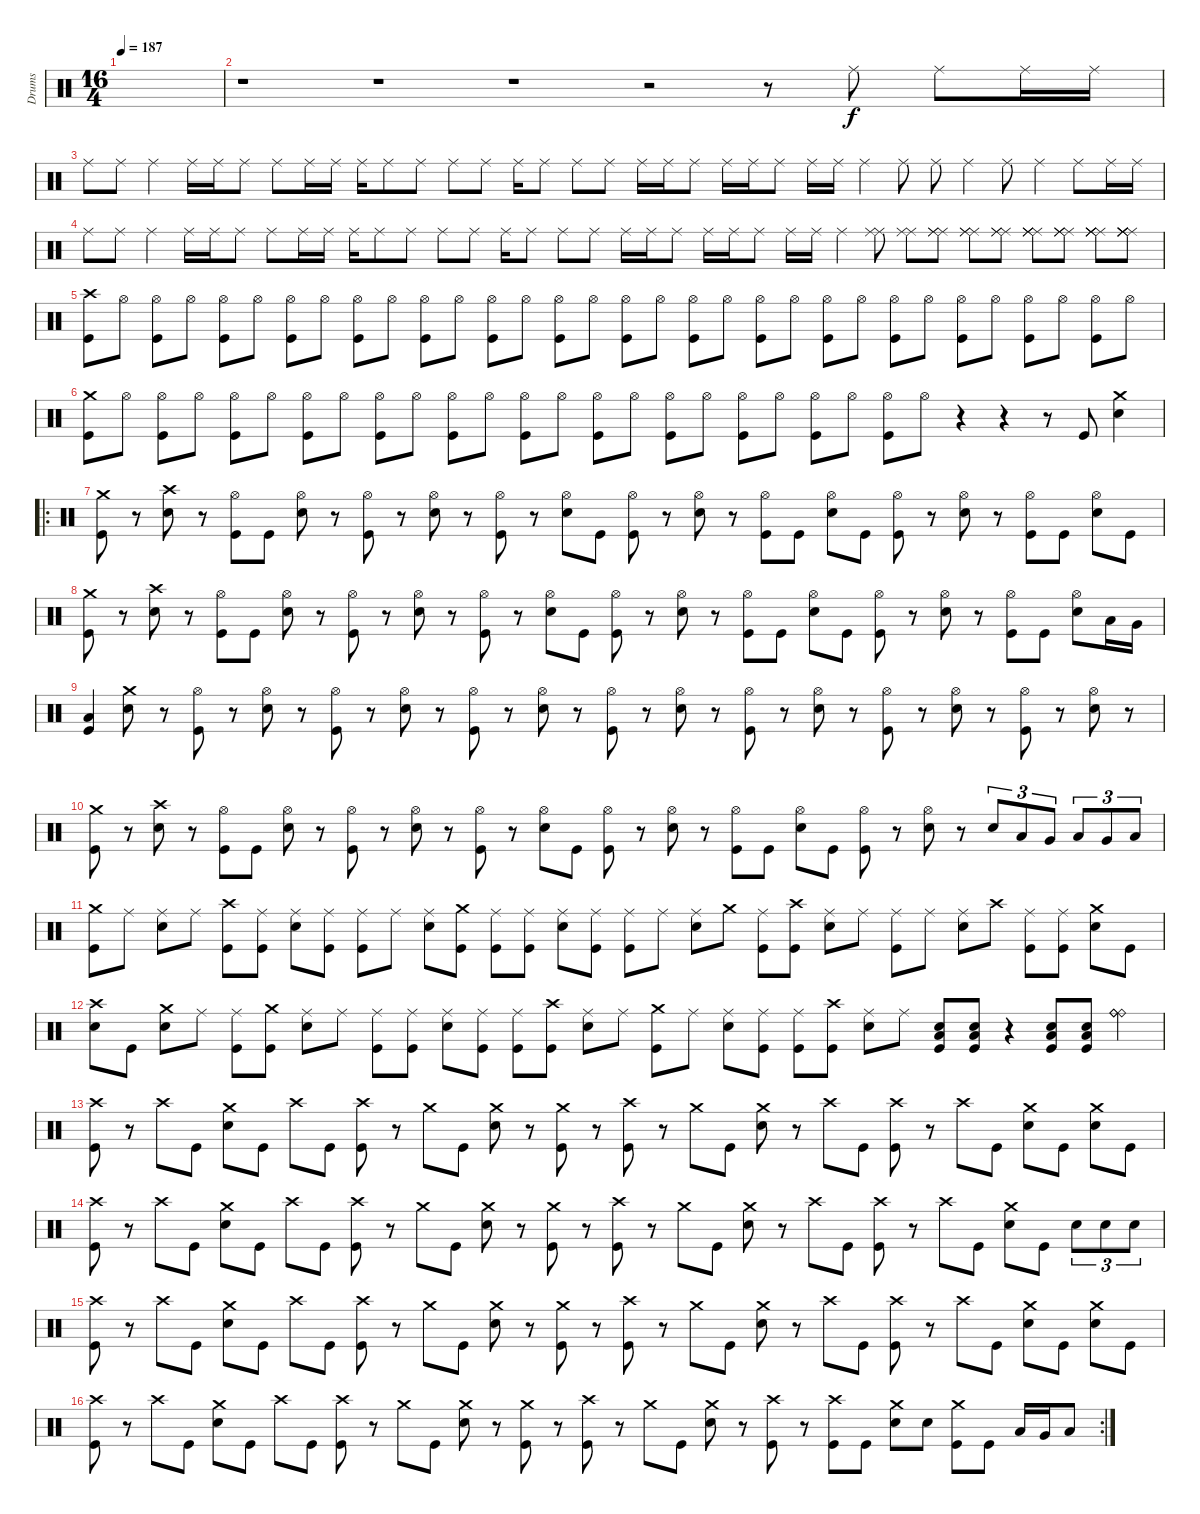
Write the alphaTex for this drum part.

\track ("Drums" "Drums") {instrument percussion}
\staff {score}
\articulation defaults
\ts (16 4)
\tempo 187
\clef neutral
\ks c
|
r.1 r.1 r.1 r.2 r.8 "Ride (middle)".8 "Ride (middle)".8 "Ride (middle)".16 "Ride (middle)".16 |
"Ride (middle)".8 "Ride (middle)".8 "Ride (middle)".4 "Ride (middle)".16 "Ride (middle)".16 "Ride (middle)".8 "Ride (middle)".8 "Ride (middle)".16 "Ride (middle)".16 "Ride (middle)".16 "Ride (middle)".8 "Ride (middle)".8 "Ride (middle)".8 "Ride (middle)".8 "Ride (middle)".16 "Ride (middle)".8 "Ride (middle)".8 "Ride (middle)".8 "Ride (middle)".16 "Ride (middle)".16 "Ride (middle)".8 "Ride (middle)".16 "Ride (middle)".16 "Ride (middle)".8 "Ride (middle)".16 "Ride (middle)".16 "Ride (middle)".4 "Ride (middle)".8 "Ride (middle)".8 "Ride (middle)".4 "Ride (middle)".8 "Ride (middle)".4 "Ride (middle)".8 "Ride (middle)".16 "Ride (middle)".16 |
"Ride (middle)".8 "Ride (middle)".8 "Ride (middle)".4 "Ride (middle)".16 "Ride (middle)".16 "Ride (middle)".8 "Ride (middle)".8 "Ride (middle)".16 "Ride (middle)".16 "Ride (middle)".16 "Ride (middle)".8 "Ride (middle)".8 "Ride (middle)".8 "Ride (middle)".8 "Ride (middle)".16 "Ride (middle)".8 "Ride (middle)".8 "Ride (middle)".8 "Ride (middle)".16 "Ride (middle)".16 "Ride (middle)".8 "Ride (middle)".16 "Ride (middle)".16 "Ride (middle)".8 "Ride (middle)".16 "Ride (middle)".16 "Ride (middle)".4 ("Ride (middle)" "Ride (middle)").8 ("Ride (middle)" "Ride (middle)").8 ("Ride (middle)" "Ride (middle)" "Ride (middle)").8 ("Ride (middle)" "Ride (middle)" "Ride (middle)").8 ("Ride (middle)" "Ride (middle)" "Ride (middle)").8 ("Ride (middle)" "Ride (middle)" "Ride (middle)" "Ride (middle)").8 ("Ride (middle)" "Ride (middle)" "Ride (middle)" "Ride (middle)").8 ("Ride (middle)" "Ride (middle)" "Ride (middle)" "Ride (middle)" "Ride (middle)").8 ("Ride (middle)" "Ride (middle)" "Ride (middle)" "Ride (middle)" "Ride (middle)" "Ride (middle)").8 |
("Crash high (hit)" "Kick (hit)").8 "Hi-Hat (open)".8 ("Hi-Hat (open)" "Kick (hit)").8 "Hi-Hat (open)".8 ("Hi-Hat (open)" "Kick (hit)").8 "Hi-Hat (open)".8 ("Hi-Hat (open)" "Kick (hit)").8 "Hi-Hat (open)".8 ("Hi-Hat (open)" "Kick (hit)").8 "Hi-Hat (open)".8 ("Hi-Hat (open)" "Kick (hit)").8 "Hi-Hat (open)".8 ("Hi-Hat (open)" "Kick (hit)").8 "Hi-Hat (open)".8 ("Hi-Hat (open)" "Kick (hit)").8 "Hi-Hat (open)".8 ("Hi-Hat (open)" "Kick (hit)").8 "Hi-Hat (open)".8 ("Hi-Hat (open)" "Kick (hit)").8 "Hi-Hat (open)".8 ("Hi-Hat (open)" "Kick (hit)").8 "Hi-Hat (open)".8 ("Hi-Hat (open)" "Kick (hit)").8 "Hi-Hat (open)".8 ("Hi-Hat (open)" "Kick (hit)").8 "Hi-Hat (open)".8 ("Hi-Hat (open)" "Kick (hit)").8 "Hi-Hat (open)".8 ("Hi-Hat (open)" "Kick (hit)").8 "Hi-Hat (open)".8 ("Hi-Hat (open)" "Kick (hit)").8 "Hi-Hat (open)".8 |
("Crash medium (hit)" "Kick (hit)").8 "Hi-Hat (open)".8 ("Hi-Hat (open)" "Kick (hit)").8 "Hi-Hat (open)".8 ("Hi-Hat (open)" "Kick (hit)").8 "Hi-Hat (open)".8 ("Hi-Hat (open)" "Kick (hit)").8 "Hi-Hat (open)".8 ("Hi-Hat (open)" "Kick (hit)").8 "Hi-Hat (open)".8 ("Hi-Hat (open)" "Kick (hit)").8 "Hi-Hat (open)".8 ("Hi-Hat (open)" "Kick (hit)").8 "Hi-Hat (open)".8 ("Hi-Hat (open)" "Kick (hit)").8 "Hi-Hat (open)".8 ("Hi-Hat (open)" "Kick (hit)").8 "Hi-Hat (open)".8 ("Hi-Hat (open)" "Kick (hit)").8 "Hi-Hat (open)".8 ("Hi-Hat (open)" "Kick (hit)").8 "Hi-Hat (open)".8 ("Hi-Hat (open)" "Kick (hit)").8 "Hi-Hat (open)".8 r.4 r.4 r.8 "Kick (hit)".8 ("Electric Snare (hit)" "Crash medium (hit)").4 |
\ro
("Crash medium (hit)" "Kick (hit)").8 r.8 ("Crash high (hit)" "Electric Snare (hit)").8 r.8 ("Hi-Hat (open)" "Kick (hit)").8 "Kick (hit)".8 ("Hi-Hat (open)" "Electric Snare (hit)").8 r.8 ("Hi-Hat (open)" "Kick (hit)").8 r.8 ("Hi-Hat (open)" "Electric Snare (hit)").8 r.8 ("Hi-Hat (open)" "Kick (hit)").8 r.8 ("Hi-Hat (open)" "Electric Snare (hit)").8 "Kick (hit)".8 ("Hi-Hat (open)" "Kick (hit)").8 r.8 ("Hi-Hat (open)" "Electric Snare (hit)").8 r.8 ("Hi-Hat (open)" "Kick (hit)").8 "Kick (hit)".8 ("Hi-Hat (open)" "Electric Snare (hit)").8 "Kick (hit)".8 ("Hi-Hat (open)" "Kick (hit)").8 r.8 ("Hi-Hat (open)" "Electric Snare (hit)").8 r.8 ("Hi-Hat (open)" "Kick (hit)").8 "Kick (hit)".8 ("Hi-Hat (open)" "Electric Snare (hit)").8 "Kick (hit)".8 |
("Crash medium (hit)" "Kick (hit)").8 r.8 ("Crash high (hit)" "Electric Snare (hit)").8 r.8 ("Hi-Hat (open)" "Kick (hit)").8 "Kick (hit)".8 ("Hi-Hat (open)" "Electric Snare (hit)").8 r.8 ("Hi-Hat (open)" "Kick (hit)").8 r.8 ("Hi-Hat (open)" "Electric Snare (hit)").8 r.8 ("Hi-Hat (open)" "Kick (hit)").8 r.8 ("Hi-Hat (open)" "Electric Snare (hit)").8 "Kick (hit)".8 ("Hi-Hat (open)" "Kick (hit)").8 r.8 ("Hi-Hat (open)" "Electric Snare (hit)").8 r.8 ("Hi-Hat (open)" "Kick (hit)").8 "Kick (hit)".8 ("Hi-Hat (open)" "Electric Snare (hit)").8 "Kick (hit)".8 ("Hi-Hat (open)" "Kick (hit)").8 r.8 ("Hi-Hat (open)" "Electric Snare (hit)").8 r.8 ("Hi-Hat (open)" "Kick (hit)").8 "Kick (hit)".8 ("Hi-Hat (open)" "Electric Snare (hit)").8 "Low Tom (hit)".16 "Very Low Tom (hit)".16 |
("Low Floor Tom (hit)" "Kick (hit)").4 ("Crash medium (hit)" "Electric Snare (hit)").8 r.8 ("Hi-Hat (open)" "Kick (hit)").8 r.8 ("Hi-Hat (open)" "Electric Snare (hit)").8 r.8 ("Hi-Hat (open)" "Kick (hit)").8 r.8 ("Hi-Hat (open)" "Electric Snare (hit)").8 r.8 ("Hi-Hat (open)" "Kick (hit)").8 r.8 ("Hi-Hat (open)" "Electric Snare (hit)").8 r.8 ("Hi-Hat (open)" "Kick (hit)").8 r.8 ("Hi-Hat (open)" "Electric Snare (hit)").8 r.8 ("Hi-Hat (open)" "Kick (hit)").8 r.8 ("Hi-Hat (open)" "Electric Snare (hit)").8 r.8 ("Hi-Hat (open)" "Kick (hit)").8 r.8 ("Hi-Hat (open)" "Electric Snare (hit)").8 r.8 ("Hi-Hat (open)" "Kick (hit)").8 r.8 ("Hi-Hat (open)" "Electric Snare (hit)").8 r.8 |
("Crash medium (hit)" "Kick (hit)").8 r.8 ("Crash high (hit)" "Electric Snare (hit)").8 r.8 ("Hi-Hat (open)" "Kick (hit)").8 "Kick (hit)".8 ("Hi-Hat (open)" "Electric Snare (hit)").8 r.8 ("Hi-Hat (open)" "Kick (hit)").8 r.8 ("Hi-Hat (open)" "Electric Snare (hit)").8 r.8 ("Hi-Hat (open)" "Kick (hit)").8 r.8 ("Hi-Hat (open)" "Electric Snare (hit)").8 "Kick (hit)".8 ("Hi-Hat (open)" "Kick (hit)").8 r.8 ("Hi-Hat (open)" "Electric Snare (hit)").8 r.8 ("Hi-Hat (open)" "Kick (hit)").8 "Kick (hit)".8 ("Hi-Hat (open)" "Electric Snare (hit)").8 "Kick (hit)".8 ("Hi-Hat (open)" "Kick (hit)").8 r.8 ("Hi-Hat (open)" "Electric Snare (hit)").8 r.8 "Electric Snare (hit)".8{tu (3 2)} "Low Tom (hit)".8{tu (3 2)} "Very Low Tom (hit)".8{tu (3 2)} "Low Tom (hit)".8{tu (3 2)} "Very Low Tom (hit)".8{tu (3 2)} "Low Floor Tom (hit)".8{tu (3 2)} |
("Crash medium (hit)" "Kick (hit)").8 "Ride (middle)".8 ("Ride (middle)" "Electric Snare (hit)").8 "Ride (middle)".8 ("Crash high (hit)" "Kick (hit)").8 ("Ride (middle)" "Kick (hit)").8 ("Ride (middle)" "Electric Snare (hit)").8 ("Ride (middle)" "Kick (hit)").8 ("Ride (middle)" "Kick (hit)").8 "Ride (middle)".8 ("Ride (middle)" "Electric Snare (hit)").8 ("Crash medium (hit)" "Kick (hit)").8 ("Ride (middle)" "Kick (hit)").8 ("Ride (middle)" "Kick (hit)").8 ("Ride (middle)" "Electric Snare (hit)").8 ("Ride (middle)" "Kick (hit)").8 ("Ride (middle)" "Kick (hit)").8 "Ride (middle)".8 ("Ride (middle)" "Electric Snare (hit)").8 "Crash medium (hit)".8 ("Ride (middle)" "Kick (hit)").8 ("Crash high (hit)" "Kick (hit)").8 ("Ride (middle)" "Electric Snare (hit)").8 "Ride (middle)".8 ("Ride (middle)" "Kick (hit)").8 "Ride (middle)".8 ("Ride (middle)" "Electric Snare (hit)").8 "Crash high (hit)".8 ("Ride (middle)" "Kick (hit)").8 ("Ride (middle)" "Kick (hit)").8 ("Crash medium (hit)" "Electric Snare (hit)").8 "Kick (hit)".8 |
("Crash high (hit)" "Electric Snare (hit)").8 "Kick (hit)".8 ("Crash medium (hit)" "Electric Snare (hit)").8 "Ride (middle)".8 ("Ride (middle)" "Kick (hit)").8 ("Crash medium (hit)" "Kick (hit)").8 ("Ride (middle)" "Electric Snare (hit)").8 "Ride (middle)".8 ("Ride (middle)" "Kick (hit)").8 ("Ride (middle)" "Kick (hit)").8 ("Ride (middle)" "Electric Snare (hit)").8 ("Ride (middle)" "Kick (hit)").8 ("Ride (middle)" "Kick (hit)").8 ("Crash high (hit)" "Kick (hit)").8 ("Ride (middle)" "Electric Snare (hit)").8 "Ride (middle)".8 ("Crash medium (hit)" "Kick (hit)").8 "Ride (middle)".8 ("Ride (middle)" "Electric Snare (hit)").8 ("Ride (middle)" "Kick (hit)").8 ("Ride (middle)" "Kick (hit)").8 ("Crash high (hit)" "Kick (hit)").8 ("Ride (middle)" "Electric Snare (hit)").8 "Ride (middle)".8 ("Low Floor Tom (hit)" "Electric Snare (hit)" "Kick (hit)").8 ("Low Floor Tom (hit)" "Electric Snare (hit)" "Kick (hit)").8 r.4 ("Low Floor Tom (hit)" "Electric Snare (hit)" "Kick (hit)").8 ("Low Floor Tom (hit)" "Electric Snare (hit)" "Kick (hit)").8 ("Ride (bell)" "Ride (bell)" "Ride (bell)").4 |
("Crash high (hit)" "Kick (hit)").8 r.8 "Crash high (hit)".8 "Kick (hit)".8 ("Crash medium (hit)" "Electric Snare (hit)").8 "Kick (hit)".8 "Crash high (hit)".8 "Kick (hit)".8 ("Crash high (hit)" "Kick (hit)").8 r.8 "Crash medium (hit)".8 "Kick (hit)".8 ("Crash medium (hit)" "Electric Snare (hit)").8 r.8 ("Crash medium (hit)" "Kick (hit)").8 r.8 ("Crash high (hit)" "Kick (hit)").8 r.8 "Crash medium (hit)".8 "Kick (hit)".8 ("Crash medium (hit)" "Electric Snare (hit)").8 r.8 "Crash high (hit)".8 "Kick (hit)".8 ("Crash high (hit)" "Kick (hit)").8 r.8 "Crash high (hit)".8 "Kick (hit)".8 ("Crash medium (hit)" "Electric Snare (hit)").8 "Kick (hit)".8 ("Crash medium (hit)" "Electric Snare (hit)").8 "Kick (hit)".8 |
("Crash high (hit)" "Kick (hit)").8 r.8 "Crash high (hit)".8 "Kick (hit)".8 ("Crash medium (hit)" "Electric Snare (hit)").8 "Kick (hit)".8 "Crash high (hit)".8 "Kick (hit)".8 ("Crash high (hit)" "Kick (hit)").8 r.8 "Crash medium (hit)".8 "Kick (hit)".8 ("Crash medium (hit)" "Electric Snare (hit)").8 r.8 ("Crash medium (hit)" "Kick (hit)").8 r.8 ("Crash high (hit)" "Kick (hit)").8 r.8 "Crash medium (hit)".8 "Kick (hit)".8 ("Crash medium (hit)" "Electric Snare (hit)").8 r.8 "Crash high (hit)".8 "Kick (hit)".8 ("Crash high (hit)" "Kick (hit)").8 r.8 "Crash high (hit)".8 "Kick (hit)".8 ("Crash medium (hit)" "Electric Snare (hit)").8 "Kick (hit)".8 "Electric Snare (hit)".8{tu (3 2)} "Electric Snare (hit)".8{tu (3 2)} "Electric Snare (hit)".8{tu (3 2)} |
("Crash high (hit)" "Kick (hit)").8 r.8 "Crash high (hit)".8 "Kick (hit)".8 ("Crash medium (hit)" "Electric Snare (hit)").8 "Kick (hit)".8 "Crash high (hit)".8 "Kick (hit)".8 ("Crash high (hit)" "Kick (hit)").8 r.8 "Crash medium (hit)".8 "Kick (hit)".8 ("Crash medium (hit)" "Electric Snare (hit)").8 r.8 ("Crash medium (hit)" "Kick (hit)").8 r.8 ("Crash high (hit)" "Kick (hit)").8 r.8 "Crash medium (hit)".8 "Kick (hit)".8 ("Crash medium (hit)" "Electric Snare (hit)").8 r.8 "Crash high (hit)".8 "Kick (hit)".8 ("Crash high (hit)" "Kick (hit)").8 r.8 "Crash high (hit)".8 "Kick (hit)".8 ("Crash medium (hit)" "Electric Snare (hit)").8 "Kick (hit)".8 ("Crash medium (hit)" "Electric Snare (hit)").8 "Kick (hit)".8 |
\rc 2
("Crash high (hit)" "Kick (hit)").8 r.8 "Crash high (hit)".8 "Kick (hit)".8 ("Crash medium (hit)" "Electric Snare (hit)").8 "Kick (hit)".8 "Crash high (hit)".8 "Kick (hit)".8 ("Crash high (hit)" "Kick (hit)").8 r.8 "Crash medium (hit)".8 "Kick (hit)".8 ("Crash medium (hit)" "Electric Snare (hit)").8 r.8 ("Crash medium (hit)" "Kick (hit)").8 r.8 ("Crash high (hit)" "Kick (hit)").8 r.8 "Crash medium (hit)".8 "Kick (hit)".8 ("Crash medium (hit)" "Electric Snare (hit)").8 r.8 ("Crash high (hit)" "Kick (hit)").8 r.8 ("Crash high (hit)" "Kick (hit)").8 "Kick (hit)".8 ("Crash medium (hit)" "Electric Snare (hit)").8 "Electric Snare (hit)".8 ("Crash medium (hit)" "Kick (hit)").8 "Kick (hit)".8 "Low Tom (hit)".16 "Very Low Tom (hit)".16 "Low Floor Tom (hit)".8
